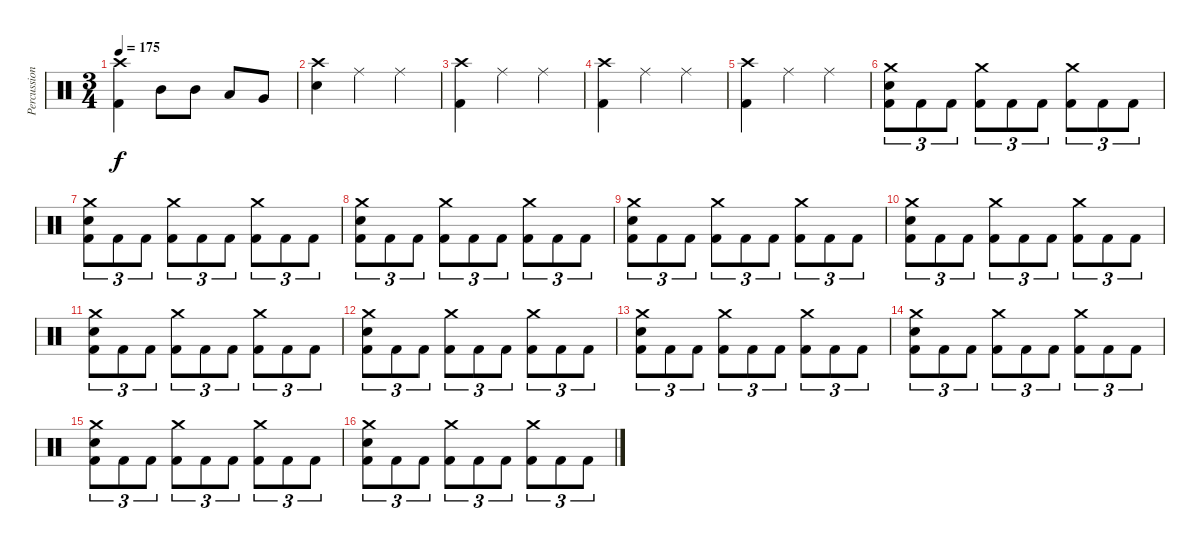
\track ("Percussion" "Percussion") {instrument percussion}
\staff {score}
\articulation defaults
\ts (3 4)
\tempo 175
\clef neutral
\ks c
("Crash high (hit)" "Kick (hit) 2").4{dy f} "Mid Tom (hit)".8 "Mid Tom (hit)".8 "Low Tom (hit)".8 "Very Low Tom (hit)".8 |
("Crash high (hit)" "Electric Snare (hit)").4 "Ride (middle)".4 "Ride (middle)".4 |
("Crash high (hit)" "Kick (hit) 2").4 "Ride (middle)".4 "Ride (middle)".4 |
("Crash high (hit)" "Kick (hit) 2").4 "Ride (middle)".4 "Ride (middle)".4 |
("Crash high (hit)" "Kick (hit) 2").4 "Ride (middle)".4 "Ride (middle)".4 |
("Crash medium (hit)" "Electric Snare (hit)" "Kick (hit) 2").8{tu (3 2)} "Kick (hit) 2".8{tu (3 2)} "Kick (hit) 2".8{tu (3 2)} ("Crash medium (hit)" "Kick (hit) 2").8{tu (3 2)} "Kick (hit) 2".8{tu (3 2)} "Kick (hit) 2".8{tu (3 2)} ("Crash medium (hit)" "Kick (hit) 2").8{tu (3 2)} "Kick (hit) 2".8{tu (3 2)} "Kick (hit) 2".8{tu (3 2)} |
("Crash medium (hit)" "Electric Snare (hit)" "Kick (hit) 2").8{tu (3 2)} "Kick (hit) 2".8{tu (3 2)} "Kick (hit) 2".8{tu (3 2)} ("Crash medium (hit)" "Kick (hit) 2").8{tu (3 2)} "Kick (hit) 2".8{tu (3 2)} "Kick (hit) 2".8{tu (3 2)} ("Crash medium (hit)" "Kick (hit) 2").8{tu (3 2)} "Kick (hit) 2".8{tu (3 2)} "Kick (hit) 2".8{tu (3 2)} |
("Crash medium (hit)" "Electric Snare (hit)" "Kick (hit) 2").8{tu (3 2)} "Kick (hit) 2".8{tu (3 2)} "Kick (hit) 2".8{tu (3 2)} ("Crash medium (hit)" "Kick (hit) 2").8{tu (3 2)} "Kick (hit) 2".8{tu (3 2)} "Kick (hit) 2".8{tu (3 2)} ("Crash medium (hit)" "Kick (hit) 2").8{tu (3 2)} "Kick (hit) 2".8{tu (3 2)} "Kick (hit) 2".8{tu (3 2)} |
("Crash medium (hit)" "Electric Snare (hit)" "Kick (hit) 2").8{tu (3 2)} "Kick (hit) 2".8{tu (3 2)} "Kick (hit) 2".8{tu (3 2)} ("Crash medium (hit)" "Kick (hit) 2").8{tu (3 2)} "Kick (hit) 2".8{tu (3 2)} "Kick (hit) 2".8{tu (3 2)} ("Crash medium (hit)" "Kick (hit) 2").8{tu (3 2)} "Kick (hit) 2".8{tu (3 2)} "Kick (hit) 2".8{tu (3 2)} |
("Crash medium (hit)" "Electric Snare (hit)" "Kick (hit) 2").8{tu (3 2)} "Kick (hit) 2".8{tu (3 2)} "Kick (hit) 2".8{tu (3 2)} ("Crash medium (hit)" "Kick (hit) 2").8{tu (3 2)} "Kick (hit) 2".8{tu (3 2)} "Kick (hit) 2".8{tu (3 2)} ("Crash medium (hit)" "Kick (hit) 2").8{tu (3 2)} "Kick (hit) 2".8{tu (3 2)} "Kick (hit) 2".8{tu (3 2)} |
("Crash medium (hit)" "Electric Snare (hit)" "Kick (hit) 2").8{tu (3 2)} "Kick (hit) 2".8{tu (3 2)} "Kick (hit) 2".8{tu (3 2)} ("Crash medium (hit)" "Kick (hit) 2").8{tu (3 2)} "Kick (hit) 2".8{tu (3 2)} "Kick (hit) 2".8{tu (3 2)} ("Crash medium (hit)" "Kick (hit) 2").8{tu (3 2)} "Kick (hit) 2".8{tu (3 2)} "Kick (hit) 2".8{tu (3 2)} |
("Crash medium (hit)" "Electric Snare (hit)" "Kick (hit) 2").8{tu (3 2)} "Kick (hit) 2".8{tu (3 2)} "Kick (hit) 2".8{tu (3 2)} ("Crash medium (hit)" "Kick (hit) 2").8{tu (3 2)} "Kick (hit) 2".8{tu (3 2)} "Kick (hit) 2".8{tu (3 2)} ("Crash medium (hit)" "Kick (hit) 2").8{tu (3 2)} "Kick (hit) 2".8{tu (3 2)} "Kick (hit) 2".8{tu (3 2)} |
("Crash medium (hit)" "Electric Snare (hit)" "Kick (hit) 2").8{tu (3 2)} "Kick (hit) 2".8{tu (3 2)} "Kick (hit) 2".8{tu (3 2)} ("Crash medium (hit)" "Kick (hit) 2").8{tu (3 2)} "Kick (hit) 2".8{tu (3 2)} "Kick (hit) 2".8{tu (3 2)} ("Crash medium (hit)" "Kick (hit) 2").8{tu (3 2)} "Kick (hit) 2".8{tu (3 2)} "Kick (hit) 2".8{tu (3 2)} |
("Crash medium (hit)" "Electric Snare (hit)" "Kick (hit) 2").8{tu (3 2)} "Kick (hit) 2".8{tu (3 2)} "Kick (hit) 2".8{tu (3 2)} ("Crash medium (hit)" "Kick (hit) 2").8{tu (3 2)} "Kick (hit) 2".8{tu (3 2)} "Kick (hit) 2".8{tu (3 2)} ("Crash medium (hit)" "Kick (hit) 2").8{tu (3 2)} "Kick (hit) 2".8{tu (3 2)} "Kick (hit) 2".8{tu (3 2)} |
("Crash medium (hit)" "Electric Snare (hit)" "Kick (hit) 2").8{tu (3 2)} "Kick (hit) 2".8{tu (3 2)} "Kick (hit) 2".8{tu (3 2)} ("Crash medium (hit)" "Kick (hit) 2").8{tu (3 2)} "Kick (hit) 2".8{tu (3 2)} "Kick (hit) 2".8{tu (3 2)} ("Crash medium (hit)" "Kick (hit) 2").8{tu (3 2)} "Kick (hit) 2".8{tu (3 2)} "Kick (hit) 2".8{tu (3 2)} |
("Crash medium (hit)" "Electric Snare (hit)" "Kick (hit) 2").8{tu (3 2)} "Kick (hit) 2".8{tu (3 2)} "Kick (hit) 2".8{tu (3 2)} ("Crash medium (hit)" "Kick (hit) 2").8{tu (3 2)} "Kick (hit) 2".8{tu (3 2)} "Kick (hit) 2".8{tu (3 2)} ("Crash medium (hit)" "Kick (hit) 2").8{tu (3 2)} "Kick (hit) 2".8{tu (3 2)} "Kick (hit) 2".8{tu (3 2)}
